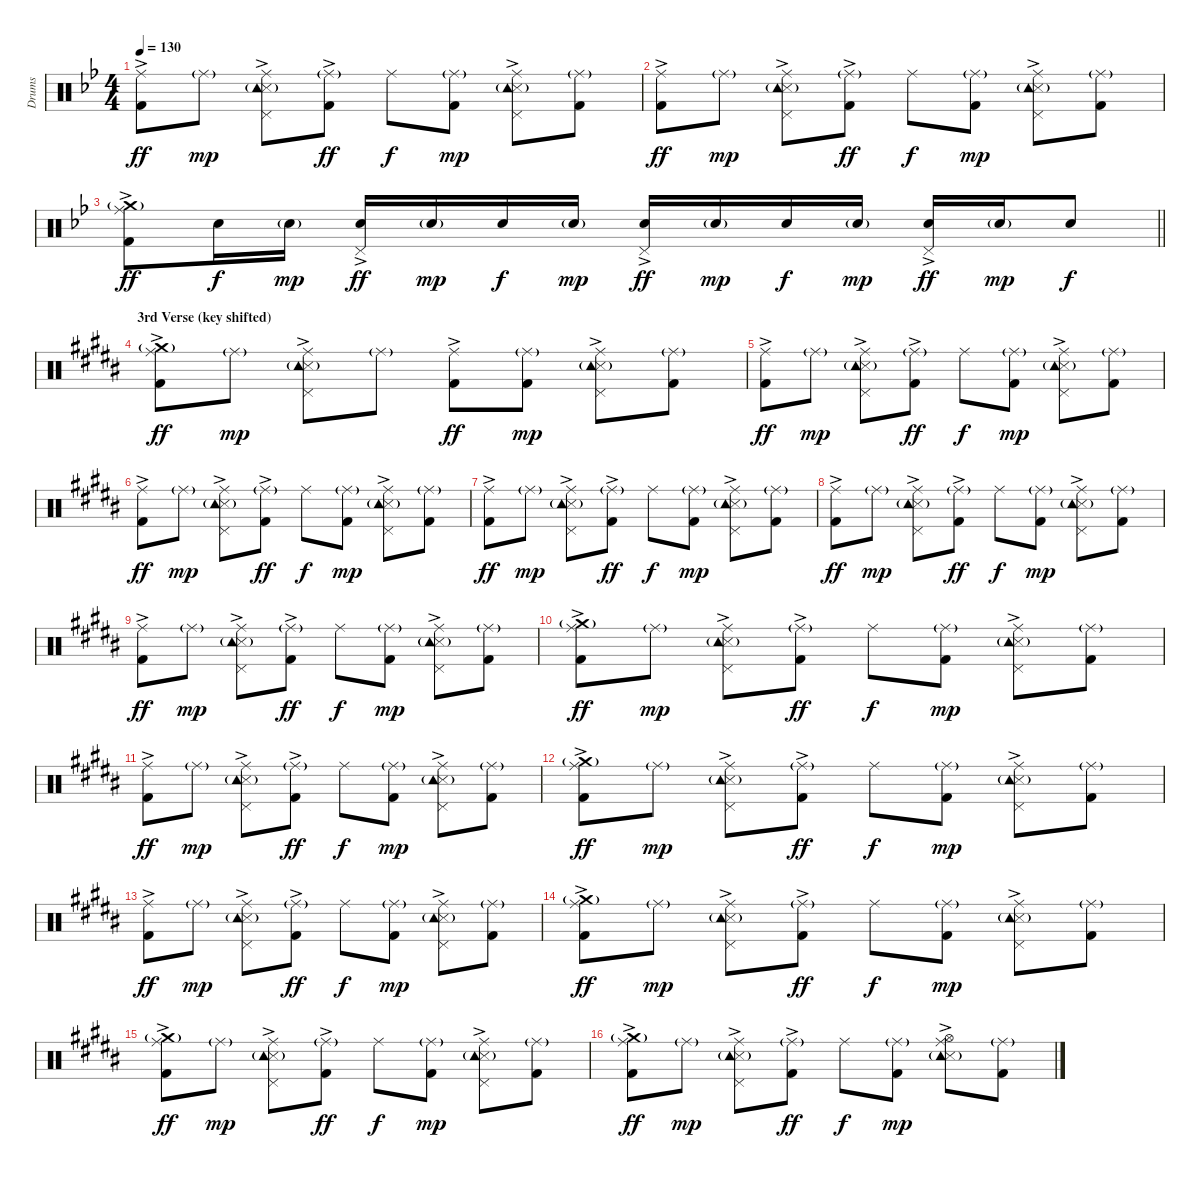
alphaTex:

\track ("Drums" "Drums") {instrument percussion}
\staff {score}
\articulation defaults
\ts (4 4)
\tempo 130
\clef neutral
\ks bb
("Ride (middle)" "Kick (hit) 2"{ac}).8{dy ff} "Ride (middle)"{g}.8{dy mp} ("Ride (middle)" "Pedal Hi-Hat (hit)" "Snare (side stick) 3"{ac} "Tambourine (hit)"{g}).8 ("Ride (middle)"{g} "Kick (hit) 2"{ac}).8{dy ff} "Ride (middle)".8{dy f} ("Ride (middle)"{g} "Kick (hit) 2").8{dy mp} ("Ride (middle)" "Pedal Hi-Hat (hit)" "Snare (side stick) 3"{ac} "Tambourine (hit)"{g}).8 ("Ride (middle)"{g} "Kick (hit) 2").8 |
("Ride (middle)" "Kick (hit) 2"{ac}).8{dy ff} "Ride (middle)"{g}.8{dy mp} ("Ride (middle)" "Pedal Hi-Hat (hit)" "Snare (side stick) 3"{ac} "Tambourine (hit)"{g}).8 ("Ride (middle)"{g} "Kick (hit) 2"{ac}).8{dy ff} "Ride (middle)".8{dy f} ("Ride (middle)"{g} "Kick (hit) 2").8{dy mp} ("Ride (middle)" "Pedal Hi-Hat (hit)" "Snare (side stick) 3"{ac} "Tambourine (hit)"{g}).8 ("Ride (middle)"{g} "Kick (hit) 2").8 |
\barLineRight lightlight
("Ride (middle)" "Crash medium (hit)"{g} "Kick (hit) 2"{ac}).8{dy ff} "Electric Snare (hit)".16{dy f} "Electric Snare (hit)"{g}.16{dy mp} ("Pedal Hi-Hat (hit)" "Electric Snare (hit)"{ac}).16{dy ff} "Electric Snare (hit)"{g}.16{dy mp} "Electric Snare (hit)".16{dy f} "Electric Snare (hit)"{g}.16{dy mp} ("Pedal Hi-Hat (hit)" "Electric Snare (hit)"{ac}).16{dy ff} "Electric Snare (hit)"{g}.16{dy mp} "Electric Snare (hit)".16{dy f} "Electric Snare (hit)"{g}.16{dy mp} ("Pedal Hi-Hat (hit)" "Electric Snare (hit)"{ac}).16{dy ff} "Electric Snare (hit)"{g}.16{dy mp} "Electric Snare (hit)".8{dy f} |
\section ("" "3rd Verse (key shifted)")
\ks b
("Ride (middle)" "Crash medium (hit)"{g} "Kick (hit) 2"{ac}).8{dy ff} "Ride (middle)"{g}.8{dy mp} ("Ride (middle)" "Pedal Hi-Hat (hit)" "Snare (side stick) 3"{ac} "Tambourine (hit)"{g}).8 "Ride (middle)"{g}.8 ("Ride (middle)" "Kick (hit) 2"{ac}).8{dy ff} ("Ride (middle)"{g} "Kick (hit) 2").8{dy mp} ("Ride (middle)" "Pedal Hi-Hat (hit)" "Snare (side stick) 3"{ac} "Tambourine (hit)"{g}).8 ("Ride (middle)"{g} "Kick (hit) 2").8 |
("Ride (middle)" "Kick (hit) 2"{ac}).8{dy ff} "Ride (middle)"{g}.8{dy mp} ("Ride (middle)" "Pedal Hi-Hat (hit)" "Snare (side stick) 3"{ac} "Tambourine (hit)"{g}).8 ("Ride (middle)"{g} "Kick (hit) 2"{ac}).8{dy ff} "Ride (middle)".8{dy f} ("Ride (middle)"{g} "Kick (hit) 2").8{dy mp} ("Ride (middle)" "Pedal Hi-Hat (hit)" "Snare (side stick) 3"{ac} "Tambourine (hit)"{g}).8 ("Ride (middle)"{g} "Kick (hit) 2").8 |
("Ride (middle)" "Kick (hit) 2"{ac}).8{dy ff} "Ride (middle)"{g}.8{dy mp} ("Ride (middle)" "Pedal Hi-Hat (hit)" "Snare (side stick) 3"{ac} "Tambourine (hit)"{g}).8 ("Ride (middle)"{g} "Kick (hit) 2"{ac}).8{dy ff} "Ride (middle)".8{dy f} ("Ride (middle)"{g} "Kick (hit) 2").8{dy mp} ("Ride (middle)" "Pedal Hi-Hat (hit)" "Snare (side stick) 3"{ac} "Tambourine (hit)"{g}).8 ("Ride (middle)"{g} "Kick (hit) 2").8 |
("Ride (middle)" "Kick (hit) 2"{ac}).8{dy ff} "Ride (middle)"{g}.8{dy mp} ("Ride (middle)" "Pedal Hi-Hat (hit)" "Snare (side stick) 3"{ac} "Tambourine (hit)"{g}).8 ("Ride (middle)"{g} "Kick (hit) 2"{ac}).8{dy ff} "Ride (middle)".8{dy f} ("Ride (middle)"{g} "Kick (hit) 2").8{dy mp} ("Ride (middle)" "Pedal Hi-Hat (hit)" "Snare (side stick) 3"{ac} "Tambourine (hit)"{g}).8 ("Ride (middle)"{g} "Kick (hit) 2").8 |
("Ride (middle)" "Kick (hit) 2"{ac}).8{dy ff} "Ride (middle)"{g}.8{dy mp} ("Ride (middle)" "Pedal Hi-Hat (hit)" "Snare (side stick) 3"{ac} "Tambourine (hit)"{g}).8 ("Ride (middle)"{g} "Kick (hit) 2"{ac}).8{dy ff} "Ride (middle)".8{dy f} ("Ride (middle)"{g} "Kick (hit) 2").8{dy mp} ("Ride (middle)" "Pedal Hi-Hat (hit)" "Snare (side stick) 3"{ac} "Tambourine (hit)"{g}).8 ("Ride (middle)"{g} "Kick (hit) 2").8 |
("Ride (middle)" "Kick (hit) 2"{ac}).8{dy ff} "Ride (middle)"{g}.8{dy mp} ("Ride (middle)" "Pedal Hi-Hat (hit)" "Snare (side stick) 3"{ac} "Tambourine (hit)"{g}).8 ("Ride (middle)"{g} "Kick (hit) 2"{ac}).8{dy ff} "Ride (middle)".8{dy f} ("Ride (middle)"{g} "Kick (hit) 2").8{dy mp} ("Ride (middle)" "Pedal Hi-Hat (hit)" "Snare (side stick) 3"{ac} "Tambourine (hit)"{g}).8 ("Ride (middle)"{g} "Kick (hit) 2").8 |
("Ride (middle)" "Crash medium (hit)"{g} "Kick (hit) 2"{ac}).8{dy ff} "Ride (middle)"{g}.8{dy mp} ("Ride (middle)" "Pedal Hi-Hat (hit)" "Snare (side stick) 3"{ac} "Tambourine (hit)"{g}).8 ("Ride (middle)"{g} "Kick (hit) 2"{ac}).8{dy ff} "Ride (middle)".8{dy f} ("Ride (middle)"{g} "Kick (hit) 2").8{dy mp} ("Ride (middle)" "Pedal Hi-Hat (hit)" "Snare (side stick) 3"{ac} "Tambourine (hit)"{g}).8 ("Ride (middle)"{g} "Kick (hit) 2").8 |
("Ride (middle)" "Kick (hit) 2"{ac}).8{dy ff} "Ride (middle)"{g}.8{dy mp} ("Ride (middle)" "Pedal Hi-Hat (hit)" "Snare (side stick) 3"{ac} "Tambourine (hit)"{g}).8 ("Ride (middle)"{g} "Kick (hit) 2"{ac}).8{dy ff} "Ride (middle)".8{dy f} ("Ride (middle)"{g} "Kick (hit) 2").8{dy mp} ("Ride (middle)" "Pedal Hi-Hat (hit)" "Snare (side stick) 3"{ac} "Tambourine (hit)"{g}).8 ("Ride (middle)"{g} "Kick (hit) 2").8 |
("Ride (middle)" "Crash medium (hit)"{g} "Kick (hit) 2"{ac}).8{dy ff} "Ride (middle)"{g}.8{dy mp} ("Ride (middle)" "Pedal Hi-Hat (hit)" "Snare (side stick) 3"{ac} "Tambourine (hit)"{g}).8 ("Ride (middle)"{g} "Kick (hit) 2"{ac}).8{dy ff} "Ride (middle)".8{dy f} ("Ride (middle)"{g} "Kick (hit) 2").8{dy mp} ("Ride (middle)" "Pedal Hi-Hat (hit)" "Snare (side stick) 3"{ac} "Tambourine (hit)"{g}).8 ("Ride (middle)"{g} "Kick (hit) 2").8 |
("Ride (middle)" "Kick (hit) 2"{ac}).8{dy ff} "Ride (middle)"{g}.8{dy mp} ("Ride (middle)" "Pedal Hi-Hat (hit)" "Snare (side stick) 3"{ac} "Tambourine (hit)"{g}).8 ("Ride (middle)"{g} "Kick (hit) 2"{ac}).8{dy ff} "Ride (middle)".8{dy f} ("Ride (middle)"{g} "Kick (hit) 2").8{dy mp} ("Ride (middle)" "Pedal Hi-Hat (hit)" "Snare (side stick) 3"{ac} "Tambourine (hit)"{g}).8 ("Ride (middle)"{g} "Kick (hit) 2").8 |
("Ride (middle)" "Crash medium (hit)"{g} "Kick (hit) 2"{ac}).8{dy ff} "Ride (middle)"{g}.8{dy mp} ("Ride (middle)" "Pedal Hi-Hat (hit)" "Snare (side stick) 3"{ac} "Tambourine (hit)"{g}).8 ("Ride (middle)"{g} "Kick (hit) 2"{ac}).8{dy ff} "Ride (middle)".8{dy f} ("Ride (middle)"{g} "Kick (hit) 2").8{dy mp} ("Ride (middle)" "Pedal Hi-Hat (hit)" "Snare (side stick) 3"{ac} "Tambourine (hit)"{g}).8 ("Ride (middle)"{g} "Kick (hit) 2").8 |
("Ride (middle)" "Crash medium (hit)"{g} "Kick (hit) 2"{ac}).8{dy ff} "Ride (middle)"{g}.8{dy mp} ("Ride (middle)" "Pedal Hi-Hat (hit)" "Snare (side stick) 3"{ac} "Tambourine (hit)"{g}).8 ("Ride (middle)"{g} "Kick (hit) 2"{ac}).8{dy ff} "Ride (middle)".8{dy f} ("Ride (middle)"{g} "Kick (hit) 2").8{dy mp} ("Ride (middle)" "Pedal Hi-Hat (hit)" "Snare (side stick) 3"{ac} "Tambourine (hit)"{g}).8 ("Ride (middle)"{g} "Kick (hit) 2").8 |
("Ride (middle)" "Crash medium (hit)"{g} "Kick (hit) 2"{ac}).8{dy ff} "Ride (middle)"{g}.8{dy mp} ("Ride (middle)" "Pedal Hi-Hat (hit)" "Snare (side stick) 3"{ac} "Tambourine (hit)"{g}).8 ("Ride (middle)"{g} "Kick (hit) 2"{ac}).8{dy ff} "Ride (middle)".8{dy f} ("Ride (middle)"{g} "Kick (hit) 2").8{dy mp} ("Ride (middle)" "Hi-Hat (open)" "Snare (side stick) 3"{ac} "Tambourine (hit)"{g}).8 ("Ride (middle)"{g} "Kick (hit) 2").8
